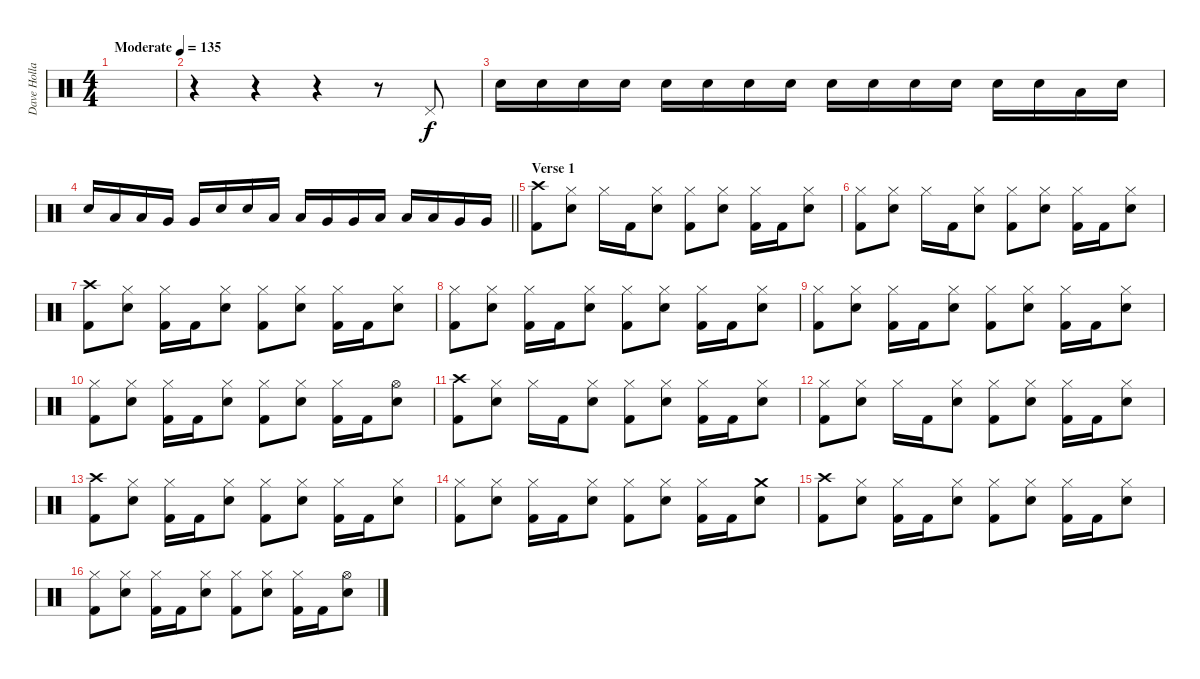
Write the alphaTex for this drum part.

\track ("Dave Holland" "Dave Holla") {instrument percussion}
\staff {score}
\articulation defaults
\ts (4 4)
\tempo (135 "Moderate")
\clef neutral
\ks c
|
r.4 r.4 r.4 r.8 "Pedal Hi-Hat (hit)".8 |
"Snare (hit) 2".16 "Snare (hit) 2".16 "Snare (hit) 2".16 "Snare (hit) 2".16 "Snare (hit) 2".16 "Snare (hit) 2".16 "Snare (hit) 2".16 "Snare (hit) 2".16 "Snare (hit) 2".16 "Snare (hit) 2".16 "Snare (hit) 2".16 "Snare (hit) 2".16 "Snare (hit) 2".16 "Snare (hit) 2".16 "Low Tom (hit)".16 "Snare (hit) 2".16 |
\barLineRight lightlight "Snare (hit) 2".16 "Low Tom (hit)".16 "Low Tom (hit)".16 "Very Low Tom (hit)".16 "Very Low Tom (hit)".16 "Snare (hit) 2".16 "Snare (hit) 2".16 "Low Tom (hit)".16 "Low Tom (hit)".16 "Very Low Tom (hit)".16 "Very Low Tom (hit)".16 "Low Tom (hit)".16 "Low Tom (hit)".16 "Low Tom (hit)".16 "Very Low Tom (hit)".16 "Very Low Tom (hit)".16
|
\section ("" "Verse 1")
("Crash high (hit)" "Kick (hit) 2").8 ("Hi-Hat (closed)" "Snare (hit) 2").8 "Hi-Hat (closed)".16 "Kick (hit) 2".16 ("Hi-Hat (closed)" "Snare (hit) 2").8 ("Hi-Hat (closed)" "Kick (hit) 2").8 ("Hi-Hat (closed)" "Snare (hit) 2").8 ("Hi-Hat (closed)" "Kick (hit) 2").16 "Kick (hit) 2".16 ("Hi-Hat (closed)" "Snare (hit) 2").8 |
("Hi-Hat (closed)" "Kick (hit) 2").8 ("Hi-Hat (closed)" "Snare (hit) 2").8 "Hi-Hat (closed)".16 "Kick (hit) 2".16 ("Hi-Hat (closed)" "Snare (hit) 2").8 ("Hi-Hat (closed)" "Kick (hit) 2").8 ("Hi-Hat (closed)" "Snare (hit) 2").8 ("Hi-Hat (closed)" "Kick (hit) 2").16 "Kick (hit) 2".16 ("Hi-Hat (closed)" "Snare (hit) 2").8 |
("Crash high (hit)" "Kick (hit) 2").8 ("Hi-Hat (closed)" "Snare (hit) 2").8 ("Hi-Hat (closed)" "Kick (hit) 2").16 "Kick (hit) 2".16 ("Hi-Hat (closed)" "Snare (hit) 2").8 ("Hi-Hat (closed)" "Kick (hit) 2").8 ("Hi-Hat (closed)" "Snare (hit) 2").8 ("Hi-Hat (closed)" "Kick (hit) 2").16 "Kick (hit) 2".16 ("Hi-Hat (closed)" "Snare (hit) 2").8 |
("Hi-Hat (closed)" "Kick (hit) 2").8 ("Hi-Hat (closed)" "Snare (hit) 2").8 ("Hi-Hat (closed)" "Kick (hit) 2").16 "Kick (hit) 2".16 ("Hi-Hat (closed)" "Snare (hit) 2").8 ("Hi-Hat (closed)" "Kick (hit) 2").8 ("Hi-Hat (closed)" "Snare (hit) 2").8 ("Hi-Hat (closed)" "Kick (hit) 2").16 "Kick (hit) 2".16 ("Hi-Hat (closed)" "Snare (hit) 2").8 |
("Hi-Hat (closed)" "Kick (hit) 2").8 ("Hi-Hat (closed)" "Snare (hit) 2").8 ("Hi-Hat (closed)" "Kick (hit) 2").16 "Kick (hit) 2".16 ("Hi-Hat (closed)" "Snare (hit) 2").8 ("Hi-Hat (closed)" "Kick (hit) 2").8 ("Hi-Hat (closed)" "Snare (hit) 2").8 ("Hi-Hat (closed)" "Kick (hit) 2").16 "Kick (hit) 2".16 ("Hi-Hat (closed)" "Snare (hit) 2").8 |
("Hi-Hat (closed)" "Kick (hit) 2").8 ("Hi-Hat (closed)" "Snare (hit) 2").8 ("Hi-Hat (closed)" "Kick (hit) 2").16 "Kick (hit) 2".16 ("Hi-Hat (closed)" "Snare (hit) 2").8 ("Hi-Hat (closed)" "Kick (hit) 2").8 ("Hi-Hat (closed)" "Snare (hit) 2").8 ("Hi-Hat (closed)" "Kick (hit) 2").16 "Kick (hit) 2".16 ("Hi-Hat (open)" "Snare (hit) 2").8 |
("Crash high (hit)" "Kick (hit) 2").8 ("Hi-Hat (closed)" "Snare (hit) 2").8 "Hi-Hat (closed)".16 "Kick (hit) 2".16 ("Hi-Hat (closed)" "Snare (hit) 2").8 ("Hi-Hat (closed)" "Kick (hit) 2").8 ("Hi-Hat (closed)" "Snare (hit) 2").8 ("Hi-Hat (closed)" "Kick (hit) 2").16 "Kick (hit) 2".16 ("Hi-Hat (closed)" "Snare (hit) 2").8 |
("Hi-Hat (closed)" "Kick (hit) 2").8 ("Hi-Hat (closed)" "Snare (hit) 2").8 "Hi-Hat (closed)".16 "Kick (hit) 2".16 ("Hi-Hat (closed)" "Snare (hit) 2").8 ("Hi-Hat (closed)" "Kick (hit) 2").8 ("Hi-Hat (closed)" "Snare (hit) 2").8 ("Hi-Hat (closed)" "Kick (hit) 2").16 "Kick (hit) 2".16 ("Hi-Hat (closed)" "Snare (hit) 2").8 |
("Crash high (hit)" "Kick (hit) 2").8 ("Hi-Hat (closed)" "Snare (hit) 2").8 ("Hi-Hat (closed)" "Kick (hit) 2").16 "Kick (hit) 2".16 ("Hi-Hat (closed)" "Snare (hit) 2").8 ("Hi-Hat (closed)" "Kick (hit) 2").8 ("Hi-Hat (closed)" "Snare (hit) 2").8 ("Hi-Hat (closed)" "Kick (hit) 2").16 "Kick (hit) 2".16 ("Hi-Hat (closed)" "Snare (hit) 2").8 |
("Hi-Hat (closed)" "Kick (hit) 2").8 ("Hi-Hat (closed)" "Snare (hit) 2").8 ("Hi-Hat (closed)" "Kick (hit) 2").16 "Kick (hit) 2".16 ("Hi-Hat (closed)" "Snare (hit) 2").8 ("Hi-Hat (closed)" "Kick (hit) 2").8 ("Hi-Hat (closed)" "Snare (hit) 2").8 ("Hi-Hat (closed)" "Kick (hit) 2").16 "Kick (hit) 2".16 ("Crash medium (hit)" "Snare (hit) 2").8 |
("Crash high (hit)" "Kick (hit) 2").8 ("Hi-Hat (closed)" "Snare (hit) 2").8 ("Hi-Hat (closed)" "Kick (hit) 2").16 "Kick (hit) 2".16 ("Hi-Hat (closed)" "Snare (hit) 2").8 ("Hi-Hat (closed)" "Kick (hit) 2").8 ("Hi-Hat (closed)" "Snare (hit) 2").8 ("Hi-Hat (closed)" "Kick (hit) 2").16 "Kick (hit) 2".16 ("Hi-Hat (closed)" "Snare (hit) 2").8 |
("Hi-Hat (closed)" "Kick (hit) 2").8 ("Hi-Hat (closed)" "Snare (hit) 2").8 ("Hi-Hat (closed)" "Kick (hit) 2").16 "Kick (hit) 2".16 ("Hi-Hat (closed)" "Snare (hit) 2").8 ("Hi-Hat (closed)" "Kick (hit) 2").8 ("Hi-Hat (closed)" "Snare (hit) 2").8 ("Hi-Hat (closed)" "Kick (hit) 2").16 "Kick (hit) 2".16 ("Hi-Hat (open)" "Snare (hit) 2").8
